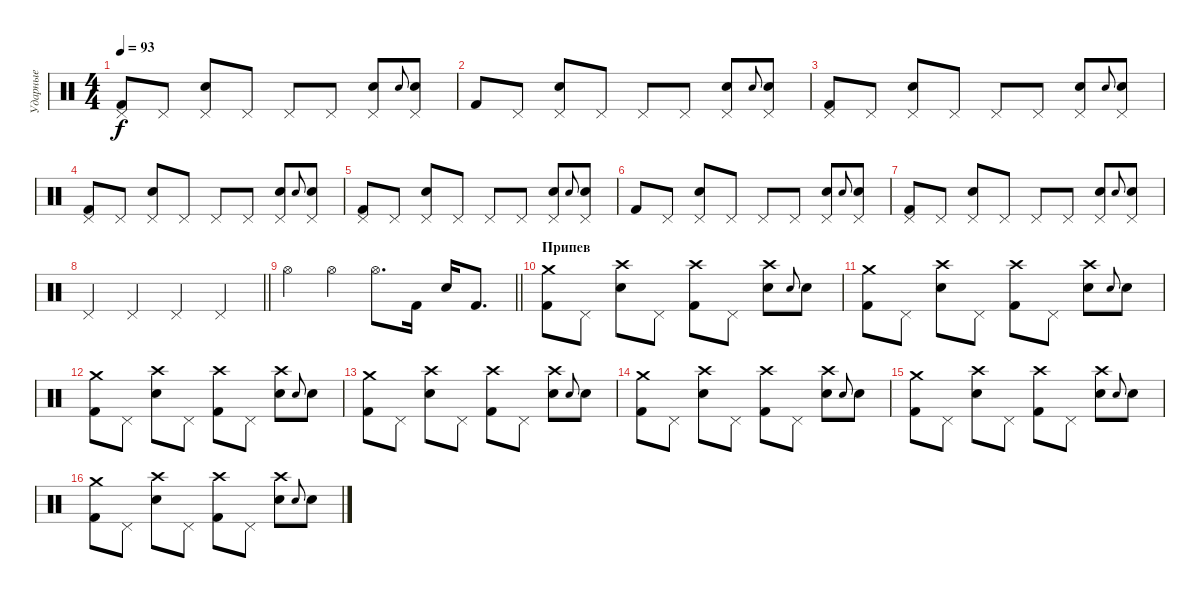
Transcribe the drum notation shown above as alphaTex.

\track ("Ударные" "Ударные") {instrument percussion}
\staff {score}
\articulation defaults
\ts (4 4)
\tempo 93
\clef neutral
\ks c
("Kick (hit) 2" "Pedal Hi-Hat (hit)").8{dy f} "Pedal Hi-Hat (hit)".8 ("Pedal Hi-Hat (hit)" "Electric Snare (hit)").8 "Pedal Hi-Hat (hit)".8 "Pedal Hi-Hat (hit)".8 "Pedal Hi-Hat (hit)".8 ("Electric Snare (hit)" "Pedal Hi-Hat (hit)").8 "Electric Snare (hit)".8{gr onbeat} ("Pedal Hi-Hat (hit)" "Electric Snare (hit)").8 |
"Kick (hit) 2".8 "Pedal Hi-Hat (hit)".8 ("Pedal Hi-Hat (hit)" "Electric Snare (hit)").8 "Pedal Hi-Hat (hit)".8 "Pedal Hi-Hat (hit)".8 "Pedal Hi-Hat (hit)".8 ("Electric Snare (hit)" "Pedal Hi-Hat (hit)").8 "Electric Snare (hit)".8{gr onbeat} ("Pedal Hi-Hat (hit)" "Electric Snare (hit)").8 |
("Kick (hit) 2" "Pedal Hi-Hat (hit)").8 "Pedal Hi-Hat (hit)".8 ("Pedal Hi-Hat (hit)" "Electric Snare (hit)").8 "Pedal Hi-Hat (hit)".8 "Pedal Hi-Hat (hit)".8 "Pedal Hi-Hat (hit)".8 ("Electric Snare (hit)" "Pedal Hi-Hat (hit)").8 "Electric Snare (hit)".8{gr onbeat} ("Pedal Hi-Hat (hit)" "Electric Snare (hit)").8 |
("Kick (hit) 2" "Pedal Hi-Hat (hit)").8 "Pedal Hi-Hat (hit)".8 ("Pedal Hi-Hat (hit)" "Electric Snare (hit)").8 "Pedal Hi-Hat (hit)".8 "Pedal Hi-Hat (hit)".8 "Pedal Hi-Hat (hit)".8 ("Electric Snare (hit)" "Pedal Hi-Hat (hit)").8 "Electric Snare (hit)".8{gr onbeat} ("Pedal Hi-Hat (hit)" "Electric Snare (hit)").8 |
("Kick (hit) 2" "Pedal Hi-Hat (hit)").8 "Pedal Hi-Hat (hit)".8 ("Pedal Hi-Hat (hit)" "Electric Snare (hit)").8 "Pedal Hi-Hat (hit)".8 "Pedal Hi-Hat (hit)".8 "Pedal Hi-Hat (hit)".8 ("Electric Snare (hit)" "Pedal Hi-Hat (hit)").8 "Electric Snare (hit)".8{gr onbeat} ("Pedal Hi-Hat (hit)" "Electric Snare (hit)").8 |
"Kick (hit) 2".8 "Pedal Hi-Hat (hit)".8 ("Pedal Hi-Hat (hit)" "Electric Snare (hit)").8 "Pedal Hi-Hat (hit)".8 "Pedal Hi-Hat (hit)".8 "Pedal Hi-Hat (hit)".8 ("Electric Snare (hit)" "Pedal Hi-Hat (hit)").8 "Electric Snare (hit)".8{gr onbeat} ("Pedal Hi-Hat (hit)" "Electric Snare (hit)").8 |
("Kick (hit) 2" "Pedal Hi-Hat (hit)").8 "Pedal Hi-Hat (hit)".8 ("Pedal Hi-Hat (hit)" "Electric Snare (hit)").8 "Pedal Hi-Hat (hit)".8 "Pedal Hi-Hat (hit)".8 "Pedal Hi-Hat (hit)".8 ("Electric Snare (hit)" "Pedal Hi-Hat (hit)").8 "Electric Snare (hit)".8{gr onbeat} ("Pedal Hi-Hat (hit)" "Electric Snare (hit)").8 |
\barLineRight lightlight "Pedal Hi-Hat (hit)".4 "Pedal Hi-Hat (hit)".4 "Pedal Hi-Hat (hit)".4 "Pedal Hi-Hat (hit)".4
|
\barLineRight lightlight "Hi-Hat (open)".4 "Hi-Hat (open)".4 "Hi-Hat (open)".8{d} "Kick (hit) 2".16 "Electric Snare (hit)".16 "Kick (hit) 2".8{d}
|
\section ("" "Припев")
("Crash medium (hit)" "Kick (hit) 2").8 "Pedal Hi-Hat (hit)".8 ("Crash high (hit)" "Electric Snare (hit)").8 "Pedal Hi-Hat (hit)".8 ("Kick (hit) 2" "Crash high (hit)").8 "Pedal Hi-Hat (hit)".8 ("Electric Snare (hit)" "Crash high (hit)").8 "Electric Snare (hit)".8{gr onbeat} "Electric Snare (hit)".8 |
("Crash medium (hit)" "Kick (hit) 2").8 "Pedal Hi-Hat (hit)".8 ("Crash high (hit)" "Electric Snare (hit)").8 "Pedal Hi-Hat (hit)".8 ("Kick (hit) 2" "Crash high (hit)").8 "Pedal Hi-Hat (hit)".8 ("Electric Snare (hit)" "Crash high (hit)").8 "Electric Snare (hit)".8{gr onbeat} "Electric Snare (hit)".8 |
("Crash medium (hit)" "Kick (hit) 2").8 "Pedal Hi-Hat (hit)".8 ("Crash high (hit)" "Electric Snare (hit)").8 "Pedal Hi-Hat (hit)".8 ("Kick (hit) 2" "Crash high (hit)").8 "Pedal Hi-Hat (hit)".8 ("Electric Snare (hit)" "Crash high (hit)").8 "Electric Snare (hit)".8{gr onbeat} "Electric Snare (hit)".8 |
("Crash medium (hit)" "Kick (hit) 2").8 "Pedal Hi-Hat (hit)".8 ("Crash high (hit)" "Electric Snare (hit)").8 "Pedal Hi-Hat (hit)".8 ("Kick (hit) 2" "Crash high (hit)").8 "Pedal Hi-Hat (hit)".8 ("Electric Snare (hit)" "Crash high (hit)").8 "Electric Snare (hit)".8{gr onbeat} "Electric Snare (hit)".8 |
("Crash medium (hit)" "Kick (hit) 2").8 "Pedal Hi-Hat (hit)".8 ("Crash high (hit)" "Electric Snare (hit)").8 "Pedal Hi-Hat (hit)".8 ("Kick (hit) 2" "Crash high (hit)").8 "Pedal Hi-Hat (hit)".8 ("Electric Snare (hit)" "Crash high (hit)").8 "Electric Snare (hit)".8{gr onbeat} "Electric Snare (hit)".8 |
("Crash medium (hit)" "Kick (hit) 2").8 "Pedal Hi-Hat (hit)".8 ("Crash high (hit)" "Electric Snare (hit)").8 "Pedal Hi-Hat (hit)".8 ("Kick (hit) 2" "Crash high (hit)").8 "Pedal Hi-Hat (hit)".8 ("Electric Snare (hit)" "Crash high (hit)").8 "Electric Snare (hit)".8{gr onbeat} "Electric Snare (hit)".8 |
("Crash medium (hit)" "Kick (hit) 2").8 "Pedal Hi-Hat (hit)".8 ("Crash high (hit)" "Electric Snare (hit)").8 "Pedal Hi-Hat (hit)".8 ("Kick (hit) 2" "Crash high (hit)").8 "Pedal Hi-Hat (hit)".8 ("Electric Snare (hit)" "Crash high (hit)").8 "Electric Snare (hit)".8{gr onbeat} "Electric Snare (hit)".8
